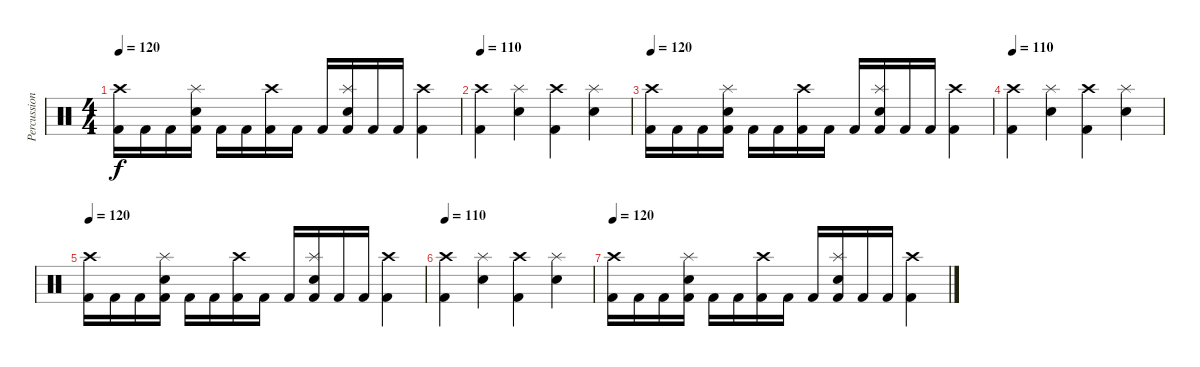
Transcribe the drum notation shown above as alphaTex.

\track ("Percussions" "Percussion") {instrument percussion}
\staff {score}
\articulation defaults
\ts (4 4)
\tempo 120
\clef neutral
\ks c
("Crash high (hit)" "Kick (hit) 2").16{dy f} "Kick (hit) 2".16 "Kick (hit) 2".16 ("Splash (hit)" "Electric Snare (hit)" "Kick (hit) 2").16 "Kick (hit) 2".16 "Kick (hit) 2".16 ("Crash high (hit)" "Kick (hit) 2").16 "Kick (hit) 2".16 "Kick (hit) 2".16 ("Splash (hit)" "Electric Snare (hit)" "Kick (hit) 2").16 "Kick (hit) 2".16 "Kick (hit) 2".16 ("Crash high (hit)" "Kick (hit) 2").4 |
\tempo 110
("Crash high (hit)" "Kick (hit) 2").4 ("Splash (hit)" "Electric Snare (hit)").4 ("Crash high (hit)" "Kick (hit) 2").4 ("Splash (hit)" "Electric Snare (hit)").4 |
\tempo 120
("Crash high (hit)" "Kick (hit) 2").16 "Kick (hit) 2".16 "Kick (hit) 2".16 ("Splash (hit)" "Electric Snare (hit)" "Kick (hit) 2").16 "Kick (hit) 2".16 "Kick (hit) 2".16 ("Crash high (hit)" "Kick (hit) 2").16 "Kick (hit) 2".16 "Kick (hit) 2".16 ("Splash (hit)" "Electric Snare (hit)" "Kick (hit) 2").16 "Kick (hit) 2".16 "Kick (hit) 2".16 ("Crash high (hit)" "Kick (hit) 2").4 |
\tempo 110
("Crash high (hit)" "Kick (hit) 2").4 ("Splash (hit)" "Electric Snare (hit)").4 ("Crash high (hit)" "Kick (hit) 2").4 ("Splash (hit)" "Electric Snare (hit)").4 |
\tempo 120
("Crash high (hit)" "Kick (hit) 2").16 "Kick (hit) 2".16 "Kick (hit) 2".16 ("Splash (hit)" "Electric Snare (hit)" "Kick (hit) 2").16 "Kick (hit) 2".16 "Kick (hit) 2".16 ("Crash high (hit)" "Kick (hit) 2").16 "Kick (hit) 2".16 "Kick (hit) 2".16 ("Splash (hit)" "Electric Snare (hit)" "Kick (hit) 2").16 "Kick (hit) 2".16 "Kick (hit) 2".16 ("Crash high (hit)" "Kick (hit) 2").4 |
\tempo 110
("Crash high (hit)" "Kick (hit) 2").4 ("Splash (hit)" "Electric Snare (hit)").4 ("Crash high (hit)" "Kick (hit) 2").4 ("Splash (hit)" "Electric Snare (hit)").4 |
\tempo 120
("Crash high (hit)" "Kick (hit) 2").16 "Kick (hit) 2".16 "Kick (hit) 2".16 ("Splash (hit)" "Electric Snare (hit)" "Kick (hit) 2").16 "Kick (hit) 2".16 "Kick (hit) 2".16 ("Crash high (hit)" "Kick (hit) 2").16 "Kick (hit) 2".16 "Kick (hit) 2".16 ("Splash (hit)" "Electric Snare (hit)" "Kick (hit) 2").16 "Kick (hit) 2".16 "Kick (hit) 2".16 ("Crash high (hit)" "Kick (hit) 2").4
